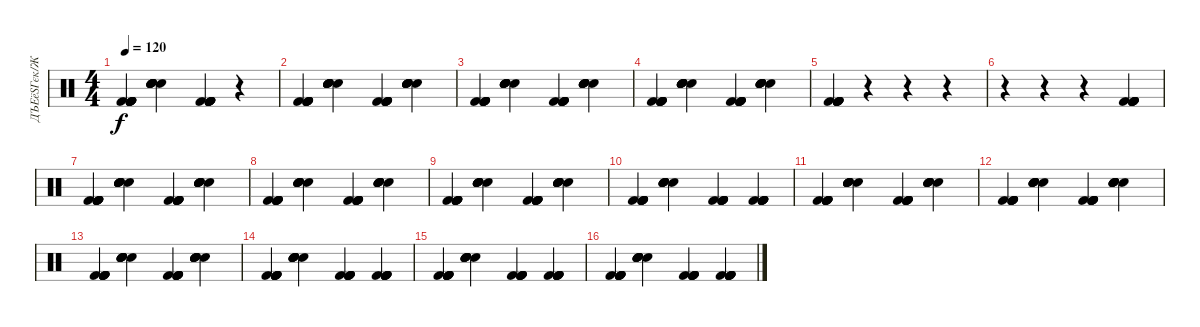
\track ("ДЪЕёЅГєк/ЖК" "ДЪЕёЅГєк/Ж") {instrument percussion}
\staff {score}
\articulation defaults
\ts (4 4)
\tempo 120
\clef neutral
\ks c
("Kick (hit) 2" "Kick (hit) 2" "Kick (hit) 2" "Kick (hit) 2" "Kick (hit) 2" "Kick (hit) 2").4{dy f} ("Hand Clap (hit)" "Hand Clap (hit)" "Hand Clap (hit)" "Hand Clap (hit)" "Hand Clap (hit)" "Hand Clap (hit)").4 ("Kick (hit) 2" "Kick (hit) 2" "Kick (hit) 2" "Kick (hit) 2" "Kick (hit) 2" "Kick (hit) 2").4 r.4 |
("Kick (hit) 2" "Kick (hit) 2" "Kick (hit) 2" "Kick (hit) 2" "Kick (hit) 2" "Kick (hit) 2").4 ("Hand Clap (hit)" "Hand Clap (hit)" "Hand Clap (hit)" "Hand Clap (hit)" "Hand Clap (hit)" "Hand Clap (hit)").4 ("Kick (hit) 2" "Kick (hit) 2" "Kick (hit) 2" "Kick (hit) 2" "Kick (hit) 2" "Kick (hit) 2").4 ("Hand Clap (hit)" "Hand Clap (hit)" "Hand Clap (hit)" "Hand Clap (hit)" "Hand Clap (hit)" "Hand Clap (hit)").4 |
("Kick (hit) 2" "Kick (hit) 2" "Kick (hit) 2" "Kick (hit) 2" "Kick (hit) 2" "Kick (hit) 2").4 ("Hand Clap (hit)" "Hand Clap (hit)" "Hand Clap (hit)" "Hand Clap (hit)" "Hand Clap (hit)" "Hand Clap (hit)").4 ("Kick (hit) 2" "Kick (hit) 2" "Kick (hit) 2" "Kick (hit) 2" "Kick (hit) 2" "Kick (hit) 2").4 ("Hand Clap (hit)" "Hand Clap (hit)" "Hand Clap (hit)" "Hand Clap (hit)" "Hand Clap (hit)" "Hand Clap (hit)").4 |
("Kick (hit) 2" "Kick (hit) 2" "Kick (hit) 2" "Kick (hit) 2" "Kick (hit) 2" "Kick (hit) 2").4 ("Hand Clap (hit)" "Hand Clap (hit)" "Hand Clap (hit)" "Hand Clap (hit)" "Hand Clap (hit)" "Hand Clap (hit)").4 ("Kick (hit) 2" "Kick (hit) 2" "Kick (hit) 2" "Kick (hit) 2" "Kick (hit) 2" "Kick (hit) 2").4 ("Hand Clap (hit)" "Hand Clap (hit)" "Hand Clap (hit)" "Hand Clap (hit)" "Hand Clap (hit)" "Hand Clap (hit)").4 |
("Kick (hit) 2" "Kick (hit) 2" "Kick (hit) 2" "Kick (hit) 2" "Kick (hit) 2" "Kick (hit) 2").4 r.4 r.4 r.4 |
r.4 r.4 r.4 ("Kick (hit) 2" "Kick (hit) 2" "Kick (hit) 2" "Kick (hit) 2" "Kick (hit) 2" "Kick (hit) 2").4 |
("Kick (hit) 2" "Kick (hit) 2" "Kick (hit) 2" "Kick (hit) 2" "Kick (hit) 2" "Kick (hit) 2").4 ("Hand Clap (hit)" "Hand Clap (hit)" "Hand Clap (hit)" "Hand Clap (hit)" "Hand Clap (hit)" "Hand Clap (hit)").4 ("Kick (hit) 2" "Kick (hit) 2" "Kick (hit) 2" "Kick (hit) 2" "Kick (hit) 2" "Kick (hit) 2").4 ("Hand Clap (hit)" "Hand Clap (hit)" "Hand Clap (hit)" "Hand Clap (hit)" "Hand Clap (hit)" "Hand Clap (hit)").4 |
("Kick (hit) 2" "Kick (hit) 2" "Kick (hit) 2" "Kick (hit) 2" "Kick (hit) 2" "Kick (hit) 2").4 ("Hand Clap (hit)" "Hand Clap (hit)" "Hand Clap (hit)" "Hand Clap (hit)" "Hand Clap (hit)" "Hand Clap (hit)").4 ("Kick (hit) 2" "Kick (hit) 2" "Kick (hit) 2" "Kick (hit) 2" "Kick (hit) 2" "Kick (hit) 2").4 ("Hand Clap (hit)" "Hand Clap (hit)" "Hand Clap (hit)" "Hand Clap (hit)" "Hand Clap (hit)" "Hand Clap (hit)").4 |
("Kick (hit) 2" "Kick (hit) 2" "Kick (hit) 2" "Kick (hit) 2" "Kick (hit) 2" "Kick (hit) 2").4 ("Hand Clap (hit)" "Hand Clap (hit)" "Hand Clap (hit)" "Hand Clap (hit)" "Hand Clap (hit)" "Hand Clap (hit)").4 ("Kick (hit) 2" "Kick (hit) 2" "Kick (hit) 2" "Kick (hit) 2" "Kick (hit) 2" "Kick (hit) 2").4 ("Hand Clap (hit)" "Hand Clap (hit)" "Hand Clap (hit)" "Hand Clap (hit)" "Hand Clap (hit)" "Hand Clap (hit)").4 |
("Kick (hit) 2" "Kick (hit) 2" "Kick (hit) 2" "Kick (hit) 2" "Kick (hit) 2" "Kick (hit) 2").4 ("Hand Clap (hit)" "Hand Clap (hit)" "Hand Clap (hit)" "Hand Clap (hit)" "Hand Clap (hit)" "Hand Clap (hit)").4 ("Kick (hit) 2" "Kick (hit) 2" "Kick (hit) 2" "Kick (hit) 2" "Kick (hit) 2" "Kick (hit) 2").4 ("Kick (hit) 2" "Kick (hit) 2" "Kick (hit) 2" "Kick (hit) 2" "Kick (hit) 2" "Kick (hit) 2").4 |
("Kick (hit) 2" "Kick (hit) 2" "Kick (hit) 2" "Kick (hit) 2" "Kick (hit) 2" "Kick (hit) 2").4 ("Hand Clap (hit)" "Hand Clap (hit)" "Hand Clap (hit)" "Hand Clap (hit)" "Hand Clap (hit)" "Hand Clap (hit)").4 ("Kick (hit) 2" "Kick (hit) 2" "Kick (hit) 2" "Kick (hit) 2" "Kick (hit) 2" "Kick (hit) 2").4 ("Hand Clap (hit)" "Hand Clap (hit)" "Hand Clap (hit)" "Hand Clap (hit)" "Hand Clap (hit)" "Hand Clap (hit)").4 |
("Kick (hit) 2" "Kick (hit) 2" "Kick (hit) 2" "Kick (hit) 2" "Kick (hit) 2" "Kick (hit) 2").4 ("Hand Clap (hit)" "Hand Clap (hit)" "Hand Clap (hit)" "Hand Clap (hit)" "Hand Clap (hit)" "Hand Clap (hit)").4 ("Kick (hit) 2" "Kick (hit) 2" "Kick (hit) 2" "Kick (hit) 2" "Kick (hit) 2" "Kick (hit) 2").4 ("Hand Clap (hit)" "Hand Clap (hit)" "Hand Clap (hit)" "Hand Clap (hit)" "Hand Clap (hit)" "Hand Clap (hit)").4 |
("Kick (hit) 2" "Kick (hit) 2" "Kick (hit) 2" "Kick (hit) 2" "Kick (hit) 2" "Kick (hit) 2").4 ("Hand Clap (hit)" "Hand Clap (hit)" "Hand Clap (hit)" "Hand Clap (hit)" "Hand Clap (hit)" "Hand Clap (hit)").4 ("Kick (hit) 2" "Kick (hit) 2" "Kick (hit) 2" "Kick (hit) 2" "Kick (hit) 2" "Kick (hit) 2").4 ("Hand Clap (hit)" "Hand Clap (hit)" "Hand Clap (hit)" "Hand Clap (hit)" "Hand Clap (hit)" "Hand Clap (hit)").4 |
("Kick (hit) 2" "Kick (hit) 2" "Kick (hit) 2" "Kick (hit) 2" "Kick (hit) 2" "Kick (hit) 2").4 ("Hand Clap (hit)" "Hand Clap (hit)" "Hand Clap (hit)" "Hand Clap (hit)" "Hand Clap (hit)" "Hand Clap (hit)").4 ("Kick (hit) 2" "Kick (hit) 2" "Kick (hit) 2" "Kick (hit) 2" "Kick (hit) 2" "Kick (hit) 2").4 ("Kick (hit) 2" "Kick (hit) 2" "Kick (hit) 2" "Kick (hit) 2" "Kick (hit) 2" "Kick (hit) 2").4 |
("Kick (hit) 2" "Kick (hit) 2" "Kick (hit) 2" "Kick (hit) 2" "Kick (hit) 2" "Kick (hit) 2").4 ("Hand Clap (hit)" "Hand Clap (hit)" "Hand Clap (hit)" "Hand Clap (hit)" "Hand Clap (hit)" "Hand Clap (hit)").4 ("Kick (hit) 2" "Kick (hit) 2" "Kick (hit) 2" "Kick (hit) 2" "Kick (hit) 2" "Kick (hit) 2").4 ("Kick (hit) 2" "Kick (hit) 2" "Kick (hit) 2" "Kick (hit) 2" "Kick (hit) 2" "Kick (hit) 2").4 |
("Kick (hit) 2" "Kick (hit) 2" "Kick (hit) 2" "Kick (hit) 2" "Kick (hit) 2" "Kick (hit) 2").4 ("Hand Clap (hit)" "Hand Clap (hit)" "Hand Clap (hit)" "Hand Clap (hit)" "Hand Clap (hit)" "Hand Clap (hit)").4 ("Kick (hit) 2" "Kick (hit) 2" "Kick (hit) 2" "Kick (hit) 2" "Kick (hit) 2" "Kick (hit) 2").4 ("Kick (hit) 2" "Kick (hit) 2" "Kick (hit) 2" "Kick (hit) 2" "Kick (hit) 2" "Kick (hit) 2").4
